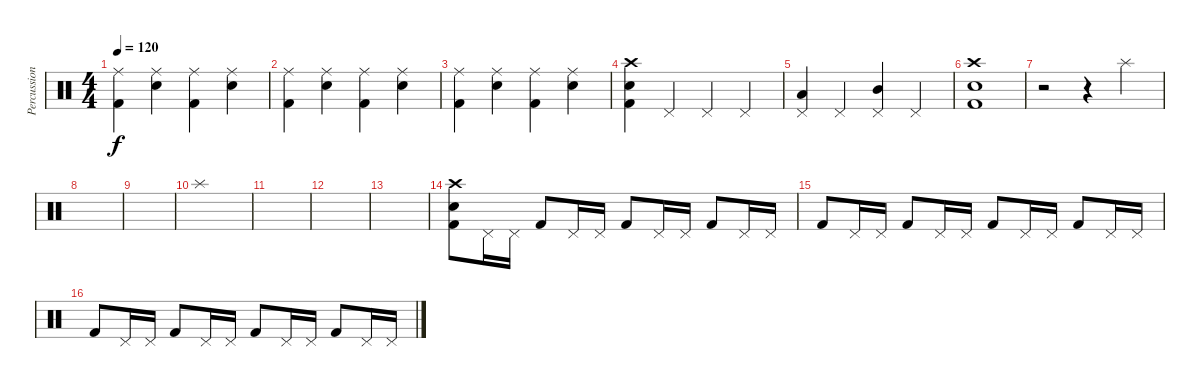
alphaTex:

\track ("Percussion" "Percussion") {instrument percussion}
\staff {score}
\articulation defaults
\ts (4 4)
\tempo 120
\clef neutral
\ks c
("Ride (middle)" "Kick (hit) 2").4{dy f} ("Ride (middle)" "Snare (hit) 2").4 ("Ride (middle)" "Kick (hit) 2").4 ("Ride (middle)" "Snare (hit) 2").4 |
("Ride (middle)" "Kick (hit) 2").4 ("Ride (middle)" "Snare (hit) 2").4 ("Ride (middle)" "Kick (hit) 2").4 ("Ride (middle)" "Snare (hit) 2").4 |
("Ride (middle)" "Kick (hit) 2").4 ("Ride (middle)" "Snare (hit) 2").4 ("Ride (middle)" "Kick (hit) 2").4 ("Ride (middle)" "Snare (hit) 2").4 |
("Crash high (hit)" "Snare (hit) 2" "Kick (hit) 2").4 "Pedal Hi-Hat (hit)".4 "Pedal Hi-Hat (hit)".4 "Pedal Hi-Hat (hit)".4 |
("Pedal Hi-Hat (hit)" "Low Tom (hit)").4 "Pedal Hi-Hat (hit)".4 ("Pedal Hi-Hat (hit)" "Mid Tom (hit)").4 "Pedal Hi-Hat (hit)".4 |
("Crash high (hit)" "Snare (hit) 2" "Kick (hit) 2").1{volume 16} |
r.2 r.4 "Splash (hit)".4 |
|
|
"Splash (hit)".1 |
|
|
|
("Crash high (hit)" "Snare (hit) 2" "Kick (hit) 2").8 "Pedal Hi-Hat (hit)".16 "Pedal Hi-Hat (hit)".16 "Kick (hit) 2".8 "Pedal Hi-Hat (hit)".16 "Pedal Hi-Hat (hit)".16 "Kick (hit) 2".8 "Pedal Hi-Hat (hit)".16 "Pedal Hi-Hat (hit)".16 "Kick (hit) 2".8 "Pedal Hi-Hat (hit)".16 "Pedal Hi-Hat (hit)".16 |
"Kick (hit) 2".8 "Pedal Hi-Hat (hit)".16 "Pedal Hi-Hat (hit)".16 "Kick (hit) 2".8 "Pedal Hi-Hat (hit)".16 "Pedal Hi-Hat (hit)".16 "Kick (hit) 2".8 "Pedal Hi-Hat (hit)".16 "Pedal Hi-Hat (hit)".16 "Kick (hit) 2".8 "Pedal Hi-Hat (hit)".16 "Pedal Hi-Hat (hit)".16 |
"Kick (hit) 2".8 "Pedal Hi-Hat (hit)".16 "Pedal Hi-Hat (hit)".16 "Kick (hit) 2".8 "Pedal Hi-Hat (hit)".16 "Pedal Hi-Hat (hit)".16 "Kick (hit) 2".8 "Pedal Hi-Hat (hit)".16 "Pedal Hi-Hat (hit)".16 "Kick (hit) 2".8 "Pedal Hi-Hat (hit)".16 "Pedal Hi-Hat (hit)".16
